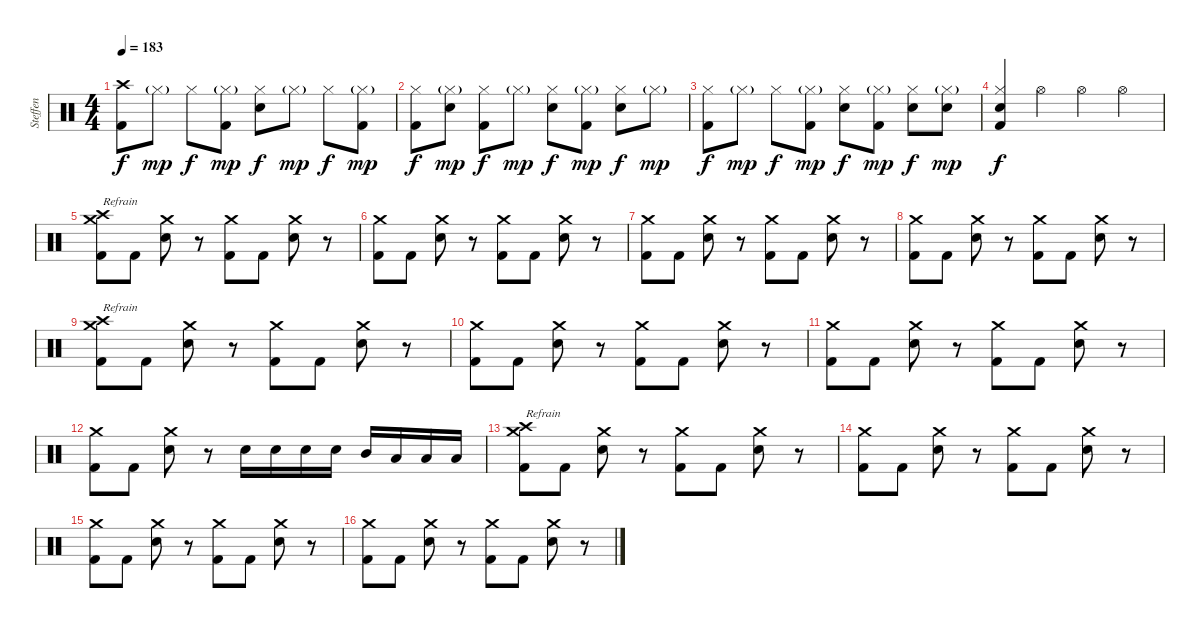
\track ("Steffen" "Steffen") {instrument percussion}
\staff {score}
\articulation defaults
\ts (4 4)
\tempo 183
\clef neutral
\ks c
("Crash high (hit)" "Kick (hit) 2").8{dy f} "Hi-Hat (closed)"{g}.8{dy mp} "Hi-Hat (closed)".8{dy f} ("Hi-Hat (closed)"{g} "Kick (hit) 2").8{dy mp} ("Hi-Hat (closed)" "Electric Snare (hit)").8{dy f} "Hi-Hat (closed)"{g}.8{dy mp} "Hi-Hat (closed)".8{dy f} ("Hi-Hat (closed)"{g} "Kick (hit) 2").8{dy mp} |
("Hi-Hat (closed)" "Kick (hit) 2").8{dy f} ("Hi-Hat (closed)"{g} "Electric Snare (hit)").8{dy mp} ("Hi-Hat (closed)" "Kick (hit) 2").8{dy f} "Hi-Hat (closed)"{g}.8{dy mp} ("Hi-Hat (closed)" "Electric Snare (hit)").8{dy f} ("Hi-Hat (closed)"{g} "Kick (hit) 2").8{dy mp} ("Hi-Hat (closed)" "Electric Snare (hit)").8{dy f} "Hi-Hat (closed)"{g}.8{dy mp} |
("Hi-Hat (closed)" "Kick (hit) 2").8{dy f} "Hi-Hat (closed)"{g}.8{dy mp} "Hi-Hat (closed)".8{dy f} ("Hi-Hat (closed)"{g} "Kick (hit) 2").8{dy mp} ("Hi-Hat (closed)" "Electric Snare (hit)").8{dy f} ("Hi-Hat (closed)"{g} "Kick (hit) 2").8{dy mp} ("Hi-Hat (closed)" "Electric Snare (hit)").8{dy f} ("Hi-Hat (closed)"{g} "Electric Snare (hit)").8{dy mp} |
("Hi-Hat (closed)" "Electric Snare (hit)" "Kick (hit) 2").4{dy f} "Hi-Hat (open)".4 "Hi-Hat (open)".4 "Hi-Hat (open)".4 |
("Crash high (hit)" "Crash medium (hit)" "Kick (hit) 2").8{txt "Refrain"} "Kick (hit) 2".8 ("Crash medium (hit)" "Snare (hit) 2").8 r.8 ("Crash medium (hit)" "Kick (hit) 2").8 "Kick (hit) 2".8 ("Crash medium (hit)" "Snare (hit) 2").8 r.8 |
("Crash medium (hit)" "Kick (hit) 2").8 "Kick (hit) 2".8 ("Crash medium (hit)" "Snare (hit) 2").8 r.8 ("Crash medium (hit)" "Kick (hit) 2").8 "Kick (hit) 2".8 ("Crash medium (hit)" "Snare (hit) 2").8 r.8 |
("Crash medium (hit)" "Kick (hit) 2").8 "Kick (hit) 2".8 ("Crash medium (hit)" "Snare (hit) 2").8 r.8 ("Crash medium (hit)" "Kick (hit) 2").8 "Kick (hit) 2".8 ("Crash medium (hit)" "Snare (hit) 2").8 r.8 |
("Crash medium (hit)" "Kick (hit) 2").8 "Kick (hit) 2".8 ("Crash medium (hit)" "Snare (hit) 2").8 r.8 ("Crash medium (hit)" "Kick (hit) 2").8 "Kick (hit) 2".8 ("Crash medium (hit)" "Snare (hit) 2").8 r.8 |
("Crash high (hit)" "Crash medium (hit)" "Kick (hit) 2").8{txt "Refrain"} "Kick (hit) 2".8 ("Crash medium (hit)" "Snare (hit) 2").8 r.8 ("Crash medium (hit)" "Kick (hit) 2").8 "Kick (hit) 2".8 ("Crash medium (hit)" "Snare (hit) 2").8 r.8 |
("Crash medium (hit)" "Kick (hit) 2").8 "Kick (hit) 2".8 ("Crash medium (hit)" "Snare (hit) 2").8 r.8 ("Crash medium (hit)" "Kick (hit) 2").8 "Kick (hit) 2".8 ("Crash medium (hit)" "Snare (hit) 2").8 r.8 |
("Crash medium (hit)" "Kick (hit) 2").8 "Kick (hit) 2".8 ("Crash medium (hit)" "Snare (hit) 2").8 r.8 ("Crash medium (hit)" "Kick (hit) 2").8 "Kick (hit) 2".8 ("Crash medium (hit)" "Snare (hit) 2").8 r.8 |
("Crash medium (hit)" "Kick (hit) 2").8 "Kick (hit) 2".8 ("Crash medium (hit)" "Snare (hit) 2").8 r.8 "Snare (hit) 2".16 "Snare (hit) 2".16 "Snare (hit) 2".16 "Snare (hit) 2".16 "Mid Tom (hit)".16 "Low Tom (hit)".16 "Low Tom (hit)".16 "Low Tom (hit)".16 |
("Crash high (hit)" "Crash medium (hit)" "Kick (hit) 2").8{txt "Refrain"} "Kick (hit) 2".8 ("Crash medium (hit)" "Snare (hit) 2").8 r.8 ("Crash medium (hit)" "Kick (hit) 2").8 "Kick (hit) 2".8 ("Crash medium (hit)" "Snare (hit) 2").8 r.8 |
("Crash medium (hit)" "Kick (hit) 2").8 "Kick (hit) 2".8 ("Crash medium (hit)" "Snare (hit) 2").8 r.8 ("Crash medium (hit)" "Kick (hit) 2").8 "Kick (hit) 2".8 ("Crash medium (hit)" "Snare (hit) 2").8 r.8 |
("Crash medium (hit)" "Kick (hit) 2").8 "Kick (hit) 2".8 ("Crash medium (hit)" "Snare (hit) 2").8 r.8 ("Crash medium (hit)" "Kick (hit) 2").8 "Kick (hit) 2".8 ("Crash medium (hit)" "Snare (hit) 2").8 r.8 |
("Crash medium (hit)" "Kick (hit) 2").8 "Kick (hit) 2".8 ("Crash medium (hit)" "Snare (hit) 2").8 r.8 ("Crash medium (hit)" "Kick (hit) 2").8 "Kick (hit) 2".8 ("Crash medium (hit)" "Snare (hit) 2").8 r.8
